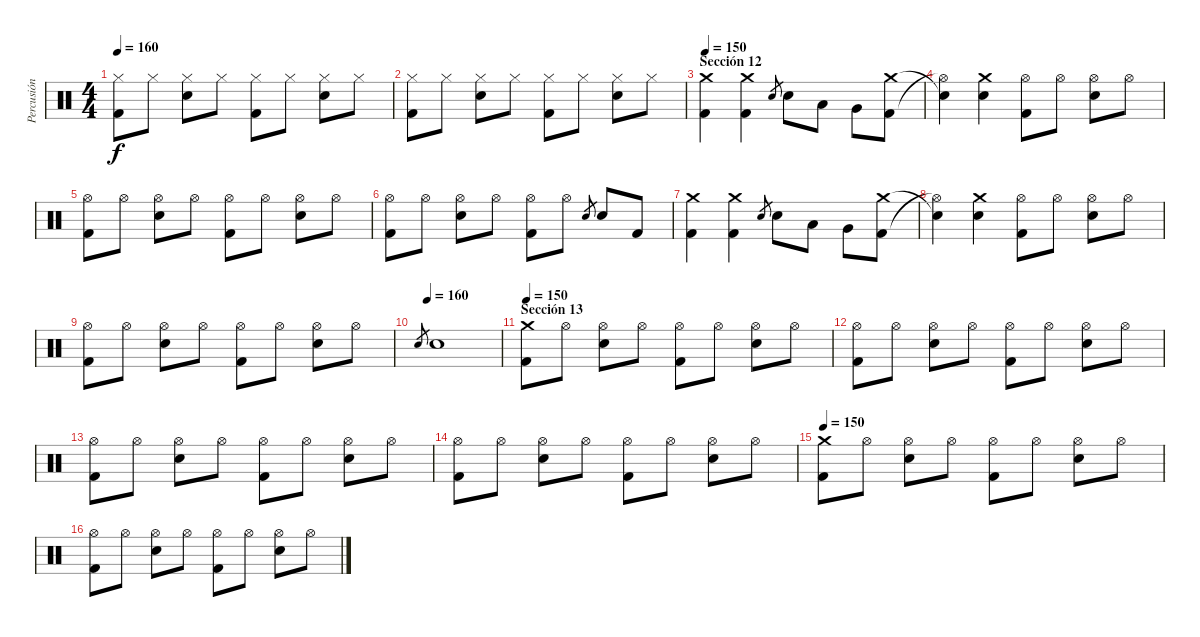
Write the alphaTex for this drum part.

\track ("Percusión" "Percusión") {instrument percussion}
\staff {score}
\articulation defaults
\ts (4 4)
\tempo 160
\clef neutral
\ks c
("Hi-Hat (closed)" "Kick (hit) 2").8{dy f} "Hi-Hat (closed)".8 ("Hi-Hat (closed)" "Snare (hit) 2").8 "Hi-Hat (closed)".8 ("Hi-Hat (closed)" "Kick (hit) 2").8 "Hi-Hat (closed)".8 ("Hi-Hat (closed)" "Snare (hit) 2").8 "Hi-Hat (closed)".8 |
("Hi-Hat (closed)" "Kick (hit) 2").8 "Hi-Hat (closed)".8 ("Hi-Hat (closed)" "Snare (hit) 2").8 "Hi-Hat (closed)".8 ("Hi-Hat (closed)" "Kick (hit) 2").8 "Hi-Hat (closed)".8 ("Hi-Hat (closed)" "Snare (hit) 2").8 "Hi-Hat (closed)".8 |
\section ("" "Sección 12")
\tempo 150
("Crash medium (hit)" "Kick (hit) 2").4 ("Crash medium (hit)" "Kick (hit) 2").4 "Snare (hit) 2".8{gr} "Snare (hit) 2".8 "Low Tom (hit)".8 "Very Low Tom (hit)".8 ("Kick (hit) 2" "Crash medium (hit)").8 |
("Hi-Hat (open)"{t} "Snare (hit)"{t}).4 ("Crash medium (hit)" "Snare (hit) 2").4 ("Hi-Hat (open)" "Kick (hit) 2").8 "Hi-Hat (open)".8 ("Hi-Hat (open)" "Snare (hit) 2").8 "Hi-Hat (open)".8 |
("Hi-Hat (open)" "Kick (hit) 2").8 "Hi-Hat (open)".8 ("Hi-Hat (open)" "Snare (hit) 2").8 "Hi-Hat (open)".8 ("Hi-Hat (open)" "Kick (hit) 2").8 "Hi-Hat (open)".8 ("Hi-Hat (open)" "Snare (hit) 2").8 "Hi-Hat (open)".8 |
("Hi-Hat (open)" "Kick (hit) 2").8 "Hi-Hat (open)".8 ("Hi-Hat (open)" "Snare (hit) 2").8 "Hi-Hat (open)".8 ("Hi-Hat (open)" "Kick (hit) 2").8 "Hi-Hat (open)".8 "Snare (hit) 2".8{gr} "Snare (hit) 2".8 "Kick (hit) 2".8 |
("Crash medium (hit)" "Kick (hit) 2").4 ("Crash medium (hit)" "Kick (hit) 2").4 "Snare (hit) 2".8{gr} "Snare (hit) 2".8 "Low Tom (hit)".8 "Very Low Tom (hit)".8 ("Kick (hit) 2" "Crash medium (hit)").8 |
("Hi-Hat (open)"{t} "Snare (hit)"{t}).4 ("Crash medium (hit)" "Snare (hit) 2").4 ("Hi-Hat (open)" "Kick (hit) 2").8 "Hi-Hat (open)".8 ("Hi-Hat (open)" "Snare (hit) 2").8 "Hi-Hat (open)".8 |
("Hi-Hat (open)" "Kick (hit) 2").8 "Hi-Hat (open)".8 ("Hi-Hat (open)" "Snare (hit) 2").8 "Hi-Hat (open)".8 ("Hi-Hat (open)" "Kick (hit) 2").8 "Hi-Hat (open)".8 ("Hi-Hat (open)" "Snare (hit) 2").8 "Hi-Hat (open)".8 |
\tempo (160 0.125)
"Snare (hit) 2".8{gr} "Snare (hit) 2".1 |
\section ("" "Sección 13")
\tempo 150
("Crash medium (hit)" "Kick (hit) 2").8 "Hi-Hat (open)".8 ("Hi-Hat (open)" "Snare (hit) 2").8 "Hi-Hat (open)".8 ("Hi-Hat (open)" "Kick (hit) 2").8 "Hi-Hat (open)".8 ("Hi-Hat (open)" "Snare (hit) 2").8 "Hi-Hat (open)".8 |
("Hi-Hat (open)" "Kick (hit) 2").8 "Hi-Hat (open)".8 ("Hi-Hat (open)" "Snare (hit) 2").8 "Hi-Hat (open)".8 ("Hi-Hat (open)" "Kick (hit) 2").8 "Hi-Hat (open)".8 ("Hi-Hat (open)" "Snare (hit) 2").8 "Hi-Hat (open)".8 |
("Hi-Hat (open)" "Kick (hit) 2").8 "Hi-Hat (open)".8 ("Hi-Hat (open)" "Snare (hit) 2").8 "Hi-Hat (open)".8 ("Hi-Hat (open)" "Kick (hit) 2").8 "Hi-Hat (open)".8 ("Hi-Hat (open)" "Snare (hit) 2").8 "Hi-Hat (open)".8 |
("Hi-Hat (open)" "Kick (hit) 2").8 "Hi-Hat (open)".8 ("Hi-Hat (open)" "Snare (hit) 2").8 "Hi-Hat (open)".8 ("Hi-Hat (open)" "Kick (hit) 2").8 "Hi-Hat (open)".8 ("Hi-Hat (open)" "Snare (hit) 2").8 "Hi-Hat (open)".8 |
\tempo 150
("Crash medium (hit)" "Kick (hit) 2").8 "Hi-Hat (open)".8 ("Hi-Hat (open)" "Snare (hit) 2").8 "Hi-Hat (open)".8 ("Hi-Hat (open)" "Kick (hit) 2").8 "Hi-Hat (open)".8 ("Hi-Hat (open)" "Snare (hit) 2").8 "Hi-Hat (open)".8 |
("Hi-Hat (open)" "Kick (hit) 2").8 "Hi-Hat (open)".8 ("Hi-Hat (open)" "Snare (hit) 2").8 "Hi-Hat (open)".8 ("Hi-Hat (open)" "Kick (hit) 2").8 "Hi-Hat (open)".8 ("Hi-Hat (open)" "Snare (hit) 2").8 "Hi-Hat (open)".8
